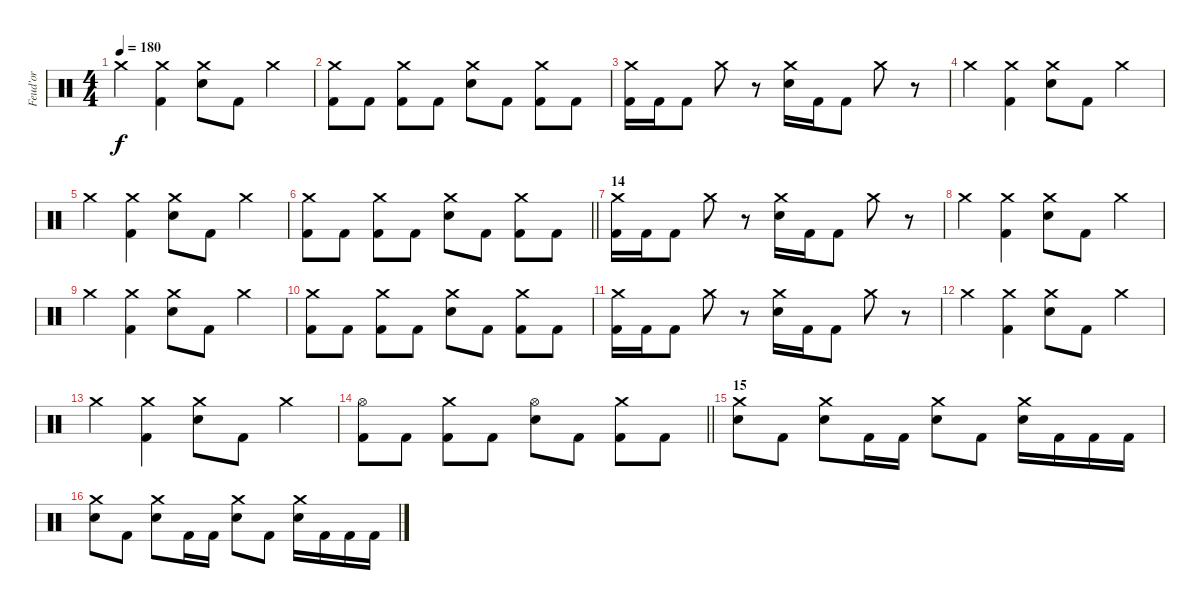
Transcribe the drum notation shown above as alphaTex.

\track ("Feud'or" "Feud'or") {instrument percussion}
\staff {score}
\articulation defaults
\ts (4 4)
\tempo 180
\clef neutral
\ks c "Crash medium (hit)".4{dy f}
("Crash medium (hit)" "Kick (hit) 2").4 ("Crash medium (hit)" "Snare (hit) 2").8 "Kick (hit) 2".8 "Crash medium (hit)".4 |
("Crash medium (hit)" "Kick (hit) 2").8 "Kick (hit) 2".8 ("Crash medium (hit)" "Kick (hit) 2").8 "Kick (hit) 2".8 ("Crash medium (hit)" "Snare (hit) 2").8 "Kick (hit) 2".8 ("Crash medium (hit)" "Kick (hit) 2").8 "Kick (hit) 2".8 |
("Crash medium (hit)" "Kick (hit) 2").16 "Kick (hit) 2".16 "Kick (hit) 2".8 "Crash medium (hit)".8 r.8 ("Crash medium (hit)" "Snare (hit) 2").16 "Kick (hit) 2".16 "Kick (hit) 2".8 "Crash medium (hit)".8 r.8 |
"Crash medium (hit)".4 ("Crash medium (hit)" "Kick (hit) 2").4 ("Crash medium (hit)" "Snare (hit) 2").8 "Kick (hit) 2".8 "Crash medium (hit)".4 |
"Crash medium (hit)".4 ("Crash medium (hit)" "Kick (hit) 2").4 ("Crash medium (hit)" "Snare (hit) 2").8 "Kick (hit) 2".8 "Crash medium (hit)".4 |
\barLineRight lightlight
("Crash medium (hit)" "Kick (hit) 2").8 "Kick (hit) 2".8 ("Crash medium (hit)" "Kick (hit) 2").8 "Kick (hit) 2".8 ("Crash medium (hit)" "Snare (hit) 2").8 "Kick (hit) 2".8 ("Crash medium (hit)" "Kick (hit) 2").8 "Kick (hit) 2".8 |
\section ("" "14")
("Crash medium (hit)" "Kick (hit) 2").16 "Kick (hit) 2".16 "Kick (hit) 2".8 "Crash medium (hit)".8 r.8 ("Crash medium (hit)" "Snare (hit) 2").16 "Kick (hit) 2".16 "Kick (hit) 2".8 "Crash medium (hit)".8 r.8 |
"Crash medium (hit)".4 ("Crash medium (hit)" "Kick (hit) 2").4 ("Crash medium (hit)" "Snare (hit) 2").8 "Kick (hit) 2".8 "Crash medium (hit)".4 |
"Crash medium (hit)".4 ("Crash medium (hit)" "Kick (hit) 2").4 ("Crash medium (hit)" "Snare (hit) 2").8 "Kick (hit) 2".8 "Crash medium (hit)".4 |
("Crash medium (hit)" "Kick (hit) 2").8 "Kick (hit) 2".8 ("Crash medium (hit)" "Kick (hit) 2").8 "Kick (hit) 2".8 ("Crash medium (hit)" "Snare (hit) 2").8 "Kick (hit) 2".8 ("Crash medium (hit)" "Kick (hit) 2").8 "Kick (hit) 2".8 |
("Crash medium (hit)" "Kick (hit) 2").16 "Kick (hit) 2".16 "Kick (hit) 2".8 "Crash medium (hit)".8 r.8 ("Crash medium (hit)" "Snare (hit) 2").16 "Kick (hit) 2".16 "Kick (hit) 2".8 "Crash medium (hit)".8 r.8 |
"Crash medium (hit)".4 ("Crash medium (hit)" "Kick (hit) 2").4 ("Crash medium (hit)" "Snare (hit) 2").8 "Kick (hit) 2".8 "Crash medium (hit)".4 |
"Crash medium (hit)".4 ("Crash medium (hit)" "Kick (hit) 2").4 ("Crash medium (hit)" "Snare (hit) 2").8 "Kick (hit) 2".8 "Crash medium (hit)".4 |
\barLineRight lightlight
("Hi-Hat (open)" "Kick (hit) 2").8 "Kick (hit) 2".8 ("Crash medium (hit)" "Kick (hit) 2").8 "Kick (hit) 2".8 ("Hi-Hat (open)" "Snare (hit) 2").8 "Kick (hit) 2".8 ("Crash medium (hit)" "Kick (hit) 2").8 "Kick (hit) 2".8 |
\section ("" "15")
("Crash medium (hit)" "Snare (hit) 2").8 "Kick (hit) 2".8 ("Crash medium (hit)" "Snare (hit) 2").8 "Kick (hit) 2".16 "Kick (hit) 2".16 ("Crash medium (hit)" "Snare (hit) 2").8 "Kick (hit) 2".8 ("Crash medium (hit)" "Snare (hit) 2").16 "Kick (hit) 2".16 "Kick (hit) 2".16 "Kick (hit) 2".16 |
("Crash medium (hit)" "Snare (hit) 2").8 "Kick (hit) 2".8 ("Crash medium (hit)" "Snare (hit) 2").8 "Kick (hit) 2".16 "Kick (hit) 2".16 ("Crash medium (hit)" "Snare (hit) 2").8 "Kick (hit) 2".8 ("Crash medium (hit)" "Snare (hit) 2").16 "Kick (hit) 2".16 "Kick (hit) 2".16 "Kick (hit) 2".16
